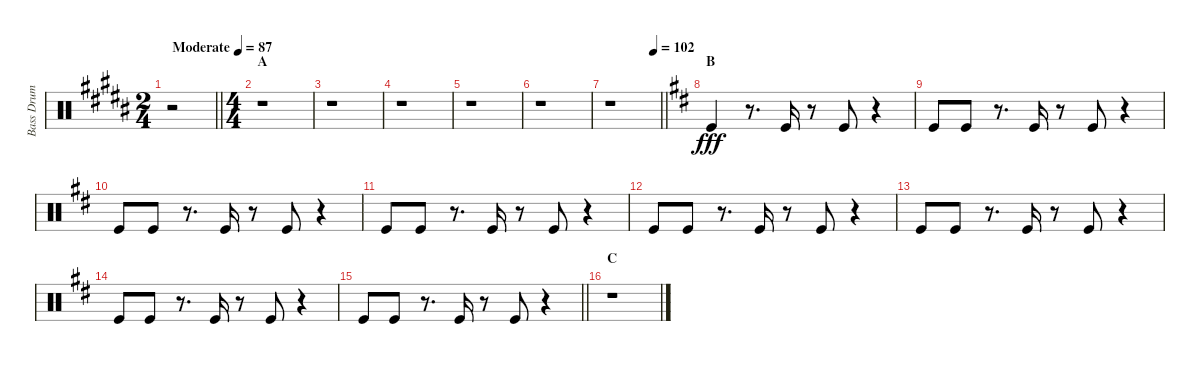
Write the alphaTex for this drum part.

\track ("Bass Drum" "Bass Drum") {instrument percussion}
\staff {score}
\articulation defaults
\ts (2 4)
\tempo (87 "Moderate")
\clef neutral
\barLineRight lightlight
\ks b
r.2{dy fff} |
\ts (4 4)
\section ("" "A")
r.1 |
r.1 |
r.1 |
r.1 |
r.1 |
\tempo (102 0.875)
\barLineRight lightlight
r.1 |
\section ("" "B")
\ks d "Kick (hit)".4
r.8{d} "Kick (hit)".16 r.8 "Kick (hit)".8 r.4 |
"Kick (hit)".8 "Kick (hit)".8 r.8{d} "Kick (hit)".16 r.8 "Kick (hit)".8 r.4 |
"Kick (hit)".8 "Kick (hit)".8 r.8{d} "Kick (hit)".16 r.8 "Kick (hit)".8 r.4 |
"Kick (hit)".8 "Kick (hit)".8 r.8{d} "Kick (hit)".16 r.8 "Kick (hit)".8 r.4 |
"Kick (hit)".8 "Kick (hit)".8 r.8{d} "Kick (hit)".16 r.8 "Kick (hit)".8 r.4 |
"Kick (hit)".8 "Kick (hit)".8 r.8{d} "Kick (hit)".16 r.8 "Kick (hit)".8 r.4 |
"Kick (hit)".8 "Kick (hit)".8 r.8{d} "Kick (hit)".16 r.8 "Kick (hit)".8 r.4 |
\barLineRight lightlight "Kick (hit)".8 "Kick (hit)".8
r.8{d} "Kick (hit)".16 r.8 "Kick (hit)".8 r.4 |
\section ("" "C")
r.1
